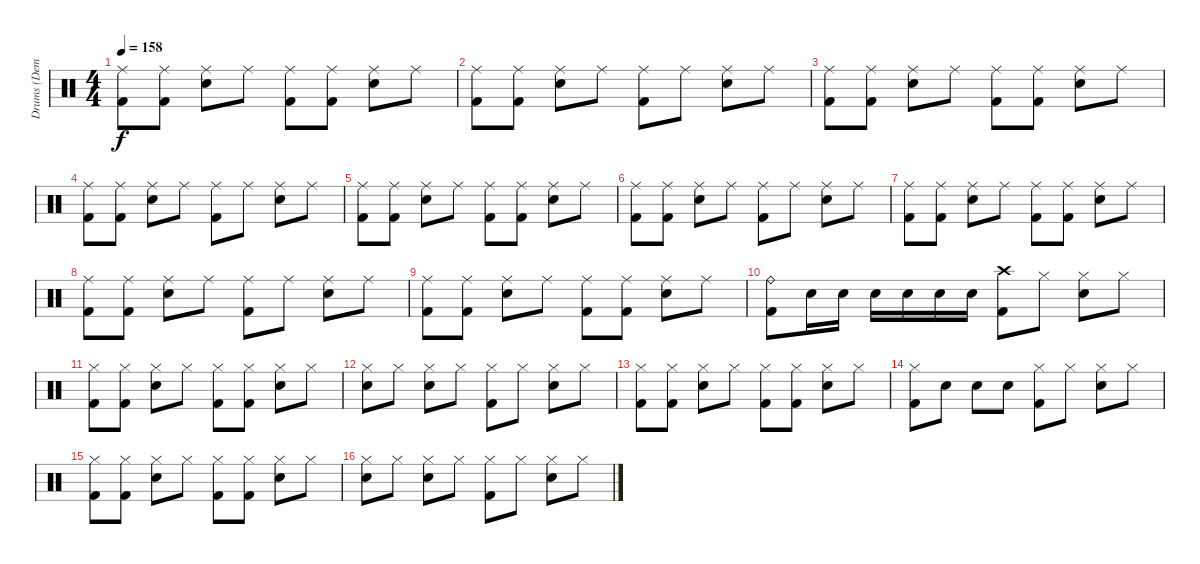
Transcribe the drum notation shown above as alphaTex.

\track ("Drums (Demetra)" "Drums (Dem") {instrument percussion}
\staff {score}
\articulation defaults
\ts (4 4)
\tempo 158
\clef neutral
\ks c
("Ride (middle)" "Kick (hit) 2").8{dy f} ("Ride (middle)" "Kick (hit) 2").8 ("Ride (middle)" "Snare (hit) 2").8 "Ride (middle)".8 ("Ride (middle)" "Kick (hit) 2").8 ("Ride (middle)" "Kick (hit) 2").8 ("Ride (middle)" "Snare (hit) 2").8 "Ride (middle)".8 |
("Ride (middle)" "Kick (hit) 2").8 ("Ride (middle)" "Kick (hit) 2").8 ("Ride (middle)" "Snare (hit) 2").8 "Ride (middle)".8 ("Ride (middle)" "Kick (hit) 2").8 "Ride (middle)".8 ("Ride (middle)" "Snare (hit) 2").8 "Ride (middle)".8 |
("Ride (middle)" "Kick (hit) 2").8 ("Ride (middle)" "Kick (hit) 2").8 ("Ride (middle)" "Snare (hit) 2").8 "Ride (middle)".8 ("Ride (middle)" "Kick (hit) 2").8 ("Ride (middle)" "Kick (hit) 2").8 ("Ride (middle)" "Snare (hit) 2").8 "Ride (middle)".8 |
("Ride (middle)" "Kick (hit) 2").8 ("Ride (middle)" "Kick (hit) 2").8 ("Ride (middle)" "Snare (hit) 2").8 "Ride (middle)".8 ("Ride (middle)" "Kick (hit) 2").8 "Ride (middle)".8 ("Ride (middle)" "Snare (hit) 2").8 "Ride (middle)".8 |
("Ride (middle)" "Kick (hit) 2").8 ("Ride (middle)" "Kick (hit) 2").8 ("Ride (middle)" "Snare (hit) 2").8 "Ride (middle)".8 ("Ride (middle)" "Kick (hit) 2").8 ("Ride (middle)" "Kick (hit) 2").8 ("Ride (middle)" "Snare (hit) 2").8 "Ride (middle)".8 |
("Ride (middle)" "Kick (hit) 2").8 ("Ride (middle)" "Kick (hit) 2").8 ("Ride (middle)" "Snare (hit) 2").8 "Ride (middle)".8 ("Ride (middle)" "Kick (hit) 2").8 "Ride (middle)".8 ("Ride (middle)" "Snare (hit) 2").8 "Ride (middle)".8 |
("Ride (middle)" "Kick (hit) 2").8 ("Ride (middle)" "Kick (hit) 2").8 ("Ride (middle)" "Snare (hit) 2").8 "Ride (middle)".8 ("Ride (middle)" "Kick (hit) 2").8 ("Ride (middle)" "Kick (hit) 2").8 ("Ride (middle)" "Snare (hit) 2").8 "Ride (middle)".8 |
("Ride (middle)" "Kick (hit) 2").8 ("Ride (middle)" "Kick (hit) 2").8 ("Ride (middle)" "Snare (hit) 2").8 "Ride (middle)".8 ("Ride (middle)" "Kick (hit) 2").8 "Ride (middle)".8 ("Ride (middle)" "Snare (hit) 2").8 "Ride (middle)".8 |
("Ride (middle)" "Kick (hit) 2").8 ("Ride (middle)" "Kick (hit) 2").8 ("Ride (middle)" "Snare (hit) 2").8 "Ride (middle)".8 ("Ride (middle)" "Kick (hit) 2").8 ("Ride (middle)" "Kick (hit) 2").8 ("Ride (middle)" "Snare (hit) 2").8 "Ride (middle)".8 |
("Ride (bell)" "Kick (hit) 2").8 "Snare (hit) 2".16 "Snare (hit) 2".16 "Snare (hit) 2".16 "Snare (hit) 2".16 "Snare (hit) 2".16 "Snare (hit) 2".16 ("Crash high (hit)" "Kick (hit) 2").8 "Hi-Hat (closed)".8 ("Hi-Hat (closed)" "Snare (hit) 2").8 "Hi-Hat (closed)".8 |
("Hi-Hat (closed)" "Kick (hit) 2").8 ("Hi-Hat (closed)" "Kick (hit) 2").8 ("Hi-Hat (closed)" "Snare (hit) 2").8 "Hi-Hat (closed)".8 ("Hi-Hat (closed)" "Kick (hit) 2").8 ("Hi-Hat (closed)" "Kick (hit) 2").8 ("Hi-Hat (closed)" "Snare (hit) 2").8 "Hi-Hat (closed)".8 |
("Hi-Hat (closed)" "Snare (hit) 2").8 "Hi-Hat (closed)".8 ("Hi-Hat (closed)" "Snare (hit) 2").8 "Hi-Hat (closed)".8 ("Hi-Hat (closed)" "Kick (hit) 2").8 "Hi-Hat (closed)".8 ("Hi-Hat (closed)" "Snare (hit) 2").8 "Hi-Hat (closed)".8 |
("Hi-Hat (closed)" "Kick (hit) 2").8 ("Hi-Hat (closed)" "Kick (hit) 2").8 ("Hi-Hat (closed)" "Snare (hit) 2").8 "Hi-Hat (closed)".8 ("Hi-Hat (closed)" "Kick (hit) 2").8 ("Hi-Hat (closed)" "Kick (hit) 2").8 ("Hi-Hat (closed)" "Snare (hit) 2").8 "Hi-Hat (closed)".8 |
("Hi-Hat (closed)" "Kick (hit) 2").8 "Snare (hit) 2".8 "Snare (hit) 2".8 "Snare (hit) 2".8 ("Hi-Hat (closed)" "Kick (hit) 2").8 "Hi-Hat (closed)".8 ("Hi-Hat (closed)" "Snare (hit) 2").8 "Hi-Hat (closed)".8 |
("Hi-Hat (closed)" "Kick (hit) 2").8 ("Hi-Hat (closed)" "Kick (hit) 2").8 ("Hi-Hat (closed)" "Snare (hit) 2").8 "Hi-Hat (closed)".8 ("Hi-Hat (closed)" "Kick (hit) 2").8 ("Hi-Hat (closed)" "Kick (hit) 2").8 ("Hi-Hat (closed)" "Snare (hit) 2").8 "Hi-Hat (closed)".8 |
("Hi-Hat (closed)" "Snare (hit) 2").8 "Hi-Hat (closed)".8 ("Hi-Hat (closed)" "Snare (hit) 2").8 "Hi-Hat (closed)".8 ("Hi-Hat (closed)" "Kick (hit) 2").8 "Hi-Hat (closed)".8 ("Hi-Hat (closed)" "Snare (hit) 2").8 "Hi-Hat (closed)".8
